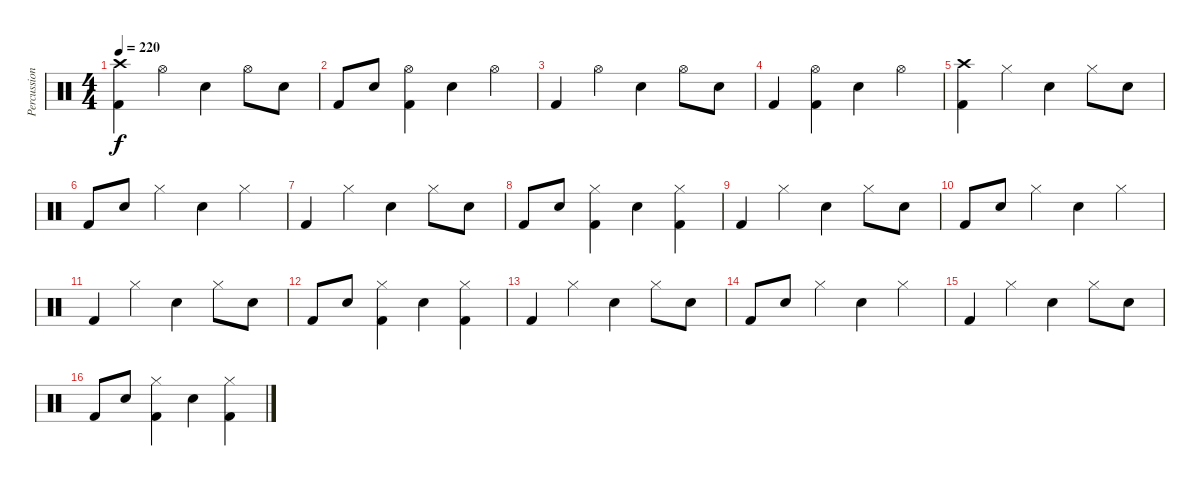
\track ("Percussion" "Percussion") {instrument percussion}
\staff {score}
\articulation defaults
\ts (4 4)
\tempo 220
\clef neutral
\ks c
("Crash high (hit)" "Kick (hit) 2").4{dy f} "Hi-Hat (open)".4 "Electric Snare (hit)".4 "Hi-Hat (open)".8 "Electric Snare (hit)".8 |
"Kick (hit) 2".8 "Electric Snare (hit)".8 ("Hi-Hat (open)" "Kick (hit) 2").4 "Electric Snare (hit)".4 "Hi-Hat (open)".4 |
"Kick (hit) 2".4 "Hi-Hat (open)".4 "Electric Snare (hit)".4 "Hi-Hat (open)".8 "Electric Snare (hit)".8 |
"Kick (hit) 2".4 ("Hi-Hat (open)" "Kick (hit) 2").4 "Electric Snare (hit)".4 "Hi-Hat (open)".4 |
("Crash high (hit)" "Kick (hit) 2").4 "Hi-Hat (closed)".4 "Electric Snare (hit)".4 "Hi-Hat (closed)".8 "Electric Snare (hit)".8 |
"Kick (hit) 2".8 "Electric Snare (hit)".8 "Hi-Hat (closed)".4 "Electric Snare (hit)".4 "Hi-Hat (closed)".4 |
"Kick (hit) 2".4 "Hi-Hat (closed)".4 "Electric Snare (hit)".4 "Hi-Hat (closed)".8 "Electric Snare (hit)".8 |
"Kick (hit) 2".8 "Electric Snare (hit)".8 ("Hi-Hat (closed)" "Kick (hit) 2").4 "Electric Snare (hit)".4 ("Hi-Hat (closed)" "Kick (hit) 2").4 |
"Kick (hit) 2".4 "Hi-Hat (closed)".4 "Electric Snare (hit)".4 "Hi-Hat (closed)".8 "Electric Snare (hit)".8 |
"Kick (hit) 2".8 "Electric Snare (hit)".8 "Hi-Hat (closed)".4 "Electric Snare (hit)".4 "Hi-Hat (closed)".4 |
"Kick (hit) 2".4 "Hi-Hat (closed)".4 "Electric Snare (hit)".4 "Hi-Hat (closed)".8 "Electric Snare (hit)".8 |
"Kick (hit) 2".8 "Electric Snare (hit)".8 ("Hi-Hat (closed)" "Kick (hit) 2").4 "Electric Snare (hit)".4 ("Hi-Hat (closed)" "Kick (hit) 2").4 |
"Kick (hit) 2".4 "Hi-Hat (closed)".4 "Electric Snare (hit)".4 "Hi-Hat (closed)".8 "Electric Snare (hit)".8 |
"Kick (hit) 2".8 "Electric Snare (hit)".8 "Hi-Hat (closed)".4 "Electric Snare (hit)".4 "Hi-Hat (closed)".4 |
"Kick (hit) 2".4 "Hi-Hat (closed)".4 "Electric Snare (hit)".4 "Hi-Hat (closed)".8 "Electric Snare (hit)".8 |
"Kick (hit) 2".8 "Electric Snare (hit)".8 ("Hi-Hat (closed)" "Kick (hit) 2").4 "Electric Snare (hit)".4 ("Hi-Hat (closed)" "Kick (hit) 2").4
